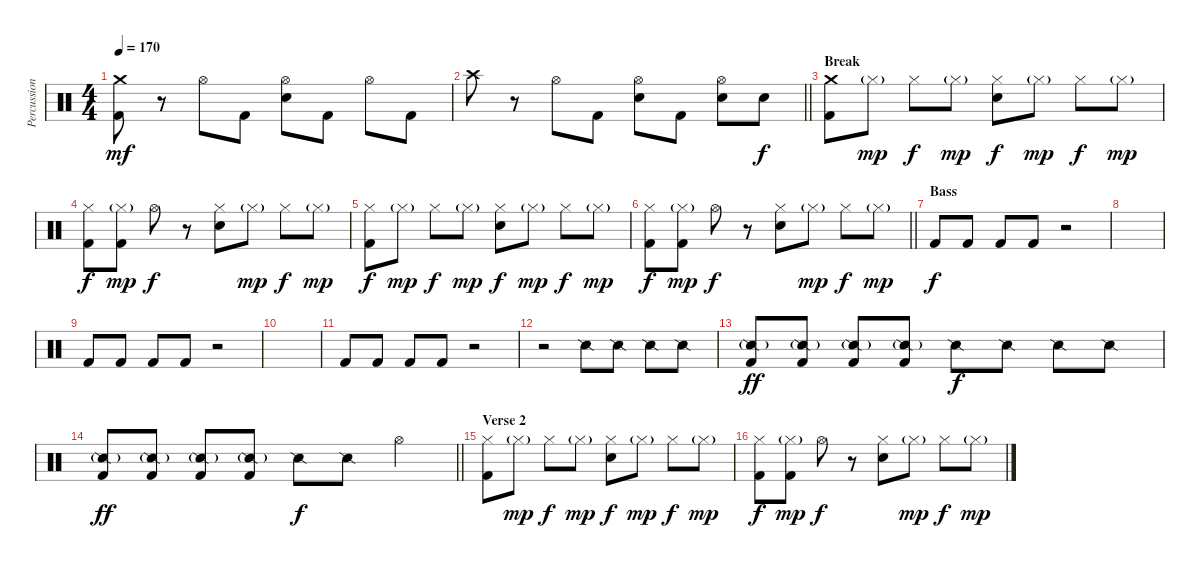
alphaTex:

\track ("Percussion" "Percussion") {instrument percussion}
\staff {score}
\articulation defaults
\ts (4 4)
\tempo 170
\clef neutral
\ks c
("Crash medium (hit)" "Kick (hit) 2").8{dy mf} r.8 "Hi-Hat (open)".8 "Kick (hit) 2".8 ("Hi-Hat (open)" "Electric Snare (hit)").8 "Kick (hit) 2".8 "Hi-Hat (open)".8 "Kick (hit) 2".8 |
\barLineRight lightlight "Crash high (hit)".8
r.8 "Hi-Hat (open)".8 "Kick (hit) 2".8 ("Hi-Hat (open)" "Electric Snare (hit)").8 "Kick (hit) 2".8 ("Hi-Hat (open)" "Electric Snare (hit)").8 "Electric Snare (hit)".8{dy f} |
\section ("" "Break")
("Crash medium (hit)" "Kick (hit) 2").8 "Hi-Hat (closed)"{g}.8{dy mp} "Hi-Hat (closed)".8{dy f} "Hi-Hat (closed)"{g}.8{dy mp} ("Hi-Hat (closed)" "Electric Snare (hit)").8{dy f} "Hi-Hat (closed)"{g}.8{dy mp} "Hi-Hat (closed)".8{dy f} "Hi-Hat (closed)"{g}.8{dy mp} |
("Hi-Hat (closed)" "Kick (hit) 2").8{dy f} ("Hi-Hat (closed)"{g} "Kick (hit) 2").8{dy mp} "Hi-Hat (open)".8{dy f} r.8 ("Hi-Hat (closed)" "Electric Snare (hit)").8 "Hi-Hat (closed)"{g}.8{dy mp} "Hi-Hat (closed)".8{dy f} "Hi-Hat (closed)"{g}.8{dy mp} |
("Hi-Hat (closed)" "Kick (hit) 2").8{dy f} "Hi-Hat (closed)"{g}.8{dy mp} "Hi-Hat (closed)".8{dy f} "Hi-Hat (closed)"{g}.8{dy mp} ("Hi-Hat (closed)" "Electric Snare (hit)").8{dy f} "Hi-Hat (closed)"{g}.8{dy mp} "Hi-Hat (closed)".8{dy f} "Hi-Hat (closed)"{g}.8{dy mp} |
\barLineRight lightlight
("Hi-Hat (closed)" "Kick (hit) 2").8{dy f} ("Hi-Hat (closed)"{g} "Kick (hit) 2").8{dy mp} "Hi-Hat (open)".8{dy f} r.8 ("Hi-Hat (closed)" "Electric Snare (hit)").8 "Hi-Hat (closed)"{g}.8{dy mp} "Hi-Hat (closed)".8{dy f} "Hi-Hat (closed)"{g}.8{dy mp} |
\section ("" "Bass")
"Kick (hit) 2".8{dy f} "Kick (hit) 2".8 "Kick (hit) 2".8 "Kick (hit) 2".8 r.2 |
|
"Kick (hit) 2".8 "Kick (hit) 2".8 "Kick (hit) 2".8 "Kick (hit) 2".8 r.2 |
|
"Kick (hit) 2".8 "Kick (hit) 2".8 "Kick (hit) 2".8 "Kick (hit) 2".8 r.2 |
r.2 "Snare (side stick) 2".8 "Snare (side stick) 2".8 "Snare (side stick) 2".8 "Snare (side stick) 2".8 |
("Snare (side stick) 2"{g} "Kick (hit) 2").8{dy ff} ("Snare (side stick) 2"{g} "Kick (hit) 2").8 ("Snare (side stick) 2"{g} "Kick (hit) 2").8 ("Snare (side stick) 2"{g} "Kick (hit) 2").8 "Snare (side stick) 2".8{dy f} "Snare (side stick) 2".8 "Snare (side stick) 2".8 "Snare (side stick) 2".8 |
\barLineRight lightlight
("Snare (side stick) 2"{g} "Kick (hit) 2").8{dy ff} ("Snare (side stick) 2"{g} "Kick (hit) 2").8 ("Snare (side stick) 2"{g} "Kick (hit) 2").8 ("Snare (side stick) 2"{g} "Kick (hit) 2").8 "Snare (side stick) 2".8{dy f} "Snare (side stick) 2".8 "Hi-Hat (open)".4 |
\section ("" "Verse 2")
("Hi-Hat (closed)" "Kick (hit) 2").8 "Hi-Hat (closed)"{g}.8{dy mp} "Hi-Hat (closed)".8{dy f} "Hi-Hat (closed)"{g}.8{dy mp} ("Hi-Hat (closed)" "Electric Snare (hit)").8{dy f} "Hi-Hat (closed)"{g}.8{dy mp} "Hi-Hat (closed)".8{dy f} "Hi-Hat (closed)"{g}.8{dy mp} |
("Hi-Hat (closed)" "Kick (hit) 2").8{dy f} ("Hi-Hat (closed)"{g} "Kick (hit) 2").8{dy mp} "Hi-Hat (open)".8{dy f} r.8 ("Hi-Hat (closed)" "Electric Snare (hit)").8 "Hi-Hat (closed)"{g}.8{dy mp} "Hi-Hat (closed)".8{dy f} "Hi-Hat (closed)"{g}.8{dy mp}
